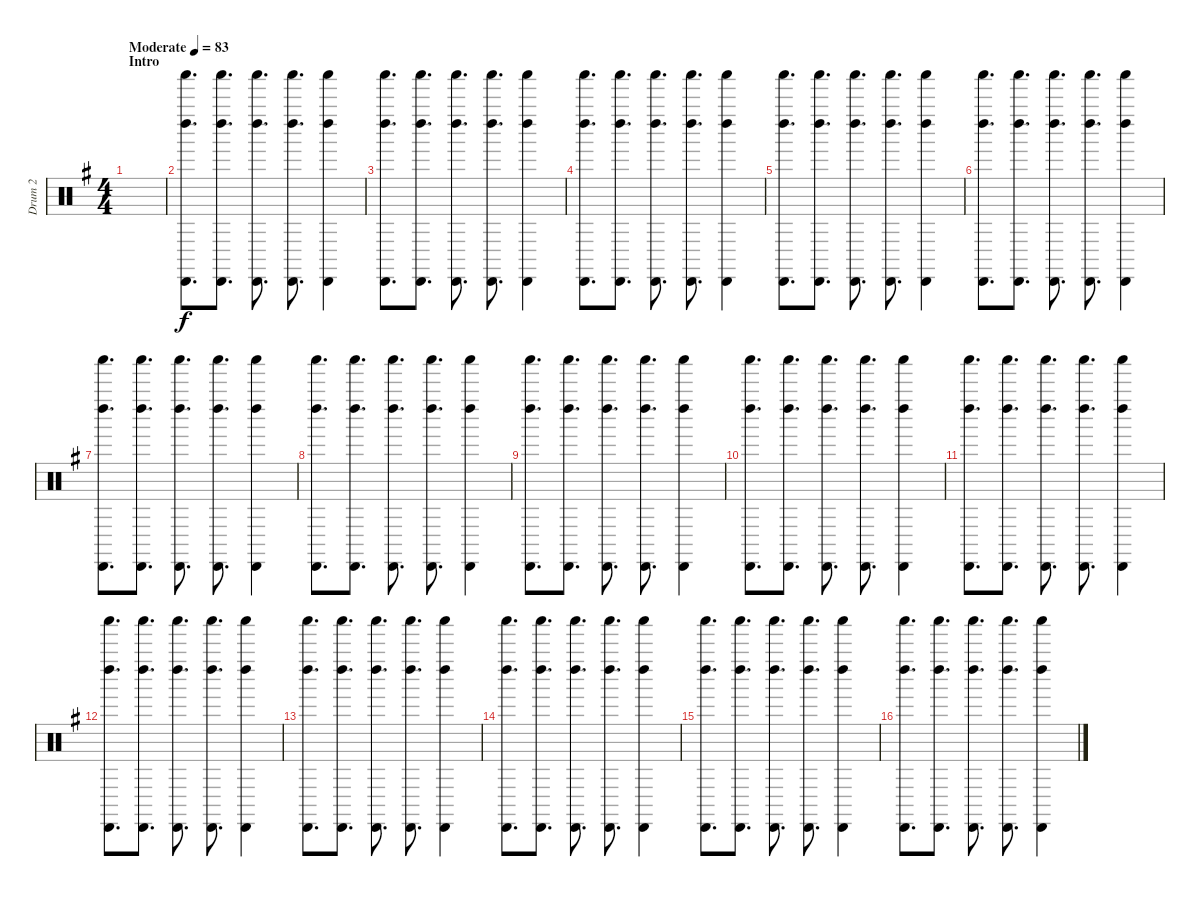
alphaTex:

\track ("Drum 2" "Drum 2") {instrument percussion}
\staff {score}
\articulation defaults
\ts (4 4)
\section ("" "Intro")
\tempo (83 "Moderate")
\clef neutral
\ks eminor
|
("Shaker (hit)" "Cabasa (hit)" "Left Maraca (hit)").8{d} ("Shaker (hit)" "Cabasa (hit)" "Left Maraca (hit)").8{d} ("Shaker (hit)" "Cabasa (hit)" "Left Maraca (hit)").8{d} ("Shaker (hit)" "Cabasa (hit)" "Left Maraca (hit)").8{d} ("Shaker (hit)" "Cabasa (hit)" "Left Maraca (hit)").4 |
("Shaker (hit)" "Cabasa (hit)" "Left Maraca (hit)").8{d} ("Shaker (hit)" "Cabasa (hit)" "Left Maraca (hit)").8{d} ("Shaker (hit)" "Cabasa (hit)" "Left Maraca (hit)").8{d} ("Shaker (hit)" "Cabasa (hit)" "Left Maraca (hit)").8{d} ("Shaker (hit)" "Cabasa (hit)" "Left Maraca (hit)").4 |
("Shaker (hit)" "Cabasa (hit)" "Left Maraca (hit)").8{d} ("Shaker (hit)" "Cabasa (hit)" "Left Maraca (hit)").8{d} ("Shaker (hit)" "Cabasa (hit)" "Left Maraca (hit)").8{d} ("Shaker (hit)" "Cabasa (hit)" "Left Maraca (hit)").8{d} ("Shaker (hit)" "Cabasa (hit)" "Left Maraca (hit)").4 |
("Shaker (hit)" "Cabasa (hit)" "Left Maraca (hit)").8{d} ("Shaker (hit)" "Cabasa (hit)" "Left Maraca (hit)").8{d} ("Shaker (hit)" "Cabasa (hit)" "Left Maraca (hit)").8{d} ("Shaker (hit)" "Cabasa (hit)" "Left Maraca (hit)").8{d} ("Shaker (hit)" "Cabasa (hit)" "Left Maraca (hit)").4 |
("Shaker (hit)" "Cabasa (hit)" "Left Maraca (hit)").8{d} ("Shaker (hit)" "Cabasa (hit)" "Left Maraca (hit)").8{d} ("Shaker (hit)" "Cabasa (hit)" "Left Maraca (hit)").8{d} ("Shaker (hit)" "Cabasa (hit)" "Left Maraca (hit)").8{d} ("Shaker (hit)" "Cabasa (hit)" "Left Maraca (hit)").4 |
("Shaker (hit)" "Cabasa (hit)" "Left Maraca (hit)").8{d} ("Shaker (hit)" "Cabasa (hit)" "Left Maraca (hit)").8{d} ("Shaker (hit)" "Cabasa (hit)" "Left Maraca (hit)").8{d} ("Shaker (hit)" "Cabasa (hit)" "Left Maraca (hit)").8{d} ("Shaker (hit)" "Cabasa (hit)" "Left Maraca (hit)").4 |
("Shaker (hit)" "Cabasa (hit)" "Left Maraca (hit)").8{d} ("Shaker (hit)" "Cabasa (hit)" "Left Maraca (hit)").8{d} ("Shaker (hit)" "Cabasa (hit)" "Left Maraca (hit)").8{d} ("Shaker (hit)" "Cabasa (hit)" "Left Maraca (hit)").8{d} ("Shaker (hit)" "Cabasa (hit)" "Left Maraca (hit)").4 |
("Shaker (hit)" "Cabasa (hit)" "Left Maraca (hit)").8{d} ("Shaker (hit)" "Cabasa (hit)" "Left Maraca (hit)").8{d} ("Shaker (hit)" "Cabasa (hit)" "Left Maraca (hit)").8{d} ("Shaker (hit)" "Cabasa (hit)" "Left Maraca (hit)").8{d} ("Shaker (hit)" "Cabasa (hit)" "Left Maraca (hit)").4 |
("Shaker (hit)" "Cabasa (hit)" "Left Maraca (hit)").8{d} ("Shaker (hit)" "Cabasa (hit)" "Left Maraca (hit)").8{d} ("Shaker (hit)" "Cabasa (hit)" "Left Maraca (hit)").8{d} ("Shaker (hit)" "Cabasa (hit)" "Left Maraca (hit)").8{d} ("Shaker (hit)" "Cabasa (hit)" "Left Maraca (hit)").4 |
("Shaker (hit)" "Cabasa (hit)" "Left Maraca (hit)").8{d} ("Shaker (hit)" "Cabasa (hit)" "Left Maraca (hit)").8{d} ("Shaker (hit)" "Cabasa (hit)" "Left Maraca (hit)").8{d} ("Shaker (hit)" "Cabasa (hit)" "Left Maraca (hit)").8{d} ("Shaker (hit)" "Cabasa (hit)" "Left Maraca (hit)").4 |
("Shaker (hit)" "Cabasa (hit)" "Left Maraca (hit)").8{d} ("Shaker (hit)" "Cabasa (hit)" "Left Maraca (hit)").8{d} ("Shaker (hit)" "Cabasa (hit)" "Left Maraca (hit)").8{d} ("Shaker (hit)" "Cabasa (hit)" "Left Maraca (hit)").8{d} ("Shaker (hit)" "Cabasa (hit)" "Left Maraca (hit)").4 |
("Shaker (hit)" "Cabasa (hit)" "Left Maraca (hit)").8{d} ("Shaker (hit)" "Cabasa (hit)" "Left Maraca (hit)").8{d} ("Shaker (hit)" "Cabasa (hit)" "Left Maraca (hit)").8{d} ("Shaker (hit)" "Cabasa (hit)" "Left Maraca (hit)").8{d} ("Shaker (hit)" "Cabasa (hit)" "Left Maraca (hit)").4 |
("Shaker (hit)" "Cabasa (hit)" "Left Maraca (hit)").8{d} ("Shaker (hit)" "Cabasa (hit)" "Left Maraca (hit)").8{d} ("Shaker (hit)" "Cabasa (hit)" "Left Maraca (hit)").8{d} ("Shaker (hit)" "Cabasa (hit)" "Left Maraca (hit)").8{d} ("Shaker (hit)" "Cabasa (hit)" "Left Maraca (hit)").4 |
("Shaker (hit)" "Cabasa (hit)" "Left Maraca (hit)").8{d} ("Shaker (hit)" "Cabasa (hit)" "Left Maraca (hit)").8{d} ("Shaker (hit)" "Cabasa (hit)" "Left Maraca (hit)").8{d} ("Shaker (hit)" "Cabasa (hit)" "Left Maraca (hit)").8{d} ("Shaker (hit)" "Cabasa (hit)" "Left Maraca (hit)").4 |
("Shaker (hit)" "Cabasa (hit)" "Left Maraca (hit)").8{d} ("Shaker (hit)" "Cabasa (hit)" "Left Maraca (hit)").8{d} ("Shaker (hit)" "Cabasa (hit)" "Left Maraca (hit)").8{d} ("Shaker (hit)" "Cabasa (hit)" "Left Maraca (hit)").8{d} ("Shaker (hit)" "Cabasa (hit)" "Left Maraca (hit)").4
